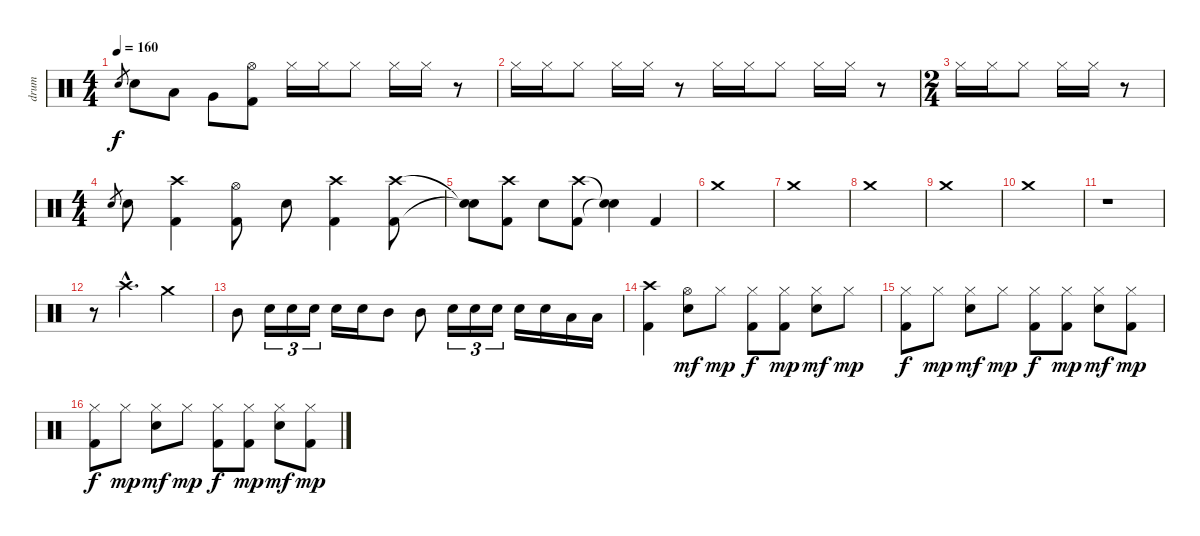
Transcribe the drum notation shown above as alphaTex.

\track ("drum" "drum") {instrument percussion}
\staff {score}
\articulation defaults
\ts (4 4)
\tempo 160
\clef neutral
\ks c "Electric Snare (hit)".8{gr dy f} "Electric Snare (hit)".8 "Low Tom (hit)".8 "Very Low Tom (hit)".8
("Hi-Hat (open)" "Kick (hit) 2").8 "Hi-Hat (closed)".16 "Hi-Hat (closed)".16 "Hi-Hat (closed)".8 "Hi-Hat (closed)".16 "Hi-Hat (closed)".16 r.8 |
"Hi-Hat (closed)".16 "Hi-Hat (closed)".16 "Hi-Hat (closed)".8 "Hi-Hat (closed)".16 "Hi-Hat (closed)".16 r.8 "Hi-Hat (closed)".16 "Hi-Hat (closed)".16 "Hi-Hat (closed)".8 "Hi-Hat (closed)".16 "Hi-Hat (closed)".16 r.8 |
\ts (2 4)
"Hi-Hat (closed)".16 "Hi-Hat (closed)".16 "Hi-Hat (closed)".8 "Hi-Hat (closed)".16 "Hi-Hat (closed)".16 r.8 |
\ts (4 4)
"Electric Snare (hit)".8{gr} "Electric Snare (hit)".8 ("Crash high (hit)" "Kick (hit) 2").4 ("Hi-Hat (open)" "Kick (hit) 2").8 "Electric Snare (hit)".8 ("Crash high (hit)" "Kick (hit) 2").4 ("Crash high (hit)" "Kick (hit) 2").8 |
("Snare (hit)"{t} "Snare (hit)"{t}).8 ("Crash high (hit)" "Kick (hit) 2").8 "Electric Snare (hit)".8 ("Crash high (hit)" "Kick (hit) 2").8 ("Snare (hit)"{t} "Snare (hit)"{t}).4 "Kick (hit) 2".4 |
"Crash medium (hit)".1 |
"Crash medium (hit)".1 |
"Crash medium (hit)".1 |
"Crash medium (hit)".1 |
"Crash medium (hit)".1 |
r.1 |
r.8 "Crash high (hit)"{hac}.4{d} "Crash medium (hit)".2 |
"Mid Tom (hit)".8 "Electric Snare (hit)".16{tu (3 2)} "Electric Snare (hit)".16{tu (3 2)} "Electric Snare (hit)".16{tu (3 2)} "Electric Snare (hit)".16 "Electric Snare (hit)".16 "Mid Tom (hit)".8 "Mid Tom (hit)".8 "Electric Snare (hit)".16{tu (3 2)} "Electric Snare (hit)".16{tu (3 2)} "Electric Snare (hit)".16{tu (3 2)} "Electric Snare (hit)".16 "Electric Snare (hit)".16 "Low Tom (hit)".16 "Low Tom (hit)".16 |
("Crash high (hit)" "Kick (hit) 2").4 ("Hi-Hat (open)" "Electric Snare (hit)").8{dy mf} "Hi-Hat (closed)".8{dy mp} ("Hi-Hat (closed)" "Kick (hit) 2").8{dy f} ("Hi-Hat (closed)" "Kick (hit) 2").8{dy mp} ("Hi-Hat (closed)" "Electric Snare (hit)").8{dy mf} "Hi-Hat (closed)".8{dy mp} |
("Hi-Hat (closed)" "Kick (hit) 2").8{dy f} "Hi-Hat (closed)".8{dy mp} ("Hi-Hat (closed)" "Electric Snare (hit)").8{dy mf} "Hi-Hat (closed)".8{dy mp} ("Hi-Hat (closed)" "Kick (hit) 2").8{dy f} ("Hi-Hat (closed)" "Kick (hit) 2").8{dy mp} ("Hi-Hat (closed)" "Electric Snare (hit)").8{dy mf} ("Hi-Hat (closed)" "Kick (hit) 2").8{dy mp} |
("Hi-Hat (closed)" "Kick (hit) 2").8{dy f} "Hi-Hat (closed)".8{dy mp} ("Hi-Hat (closed)" "Electric Snare (hit)").8{dy mf} "Hi-Hat (closed)".8{dy mp} ("Hi-Hat (closed)" "Kick (hit) 2").8{dy f} ("Hi-Hat (closed)" "Kick (hit) 2").8{dy mp} ("Hi-Hat (closed)" "Electric Snare (hit)").8{dy mf} ("Hi-Hat (closed)" "Kick (hit) 2").8{dy mp}
